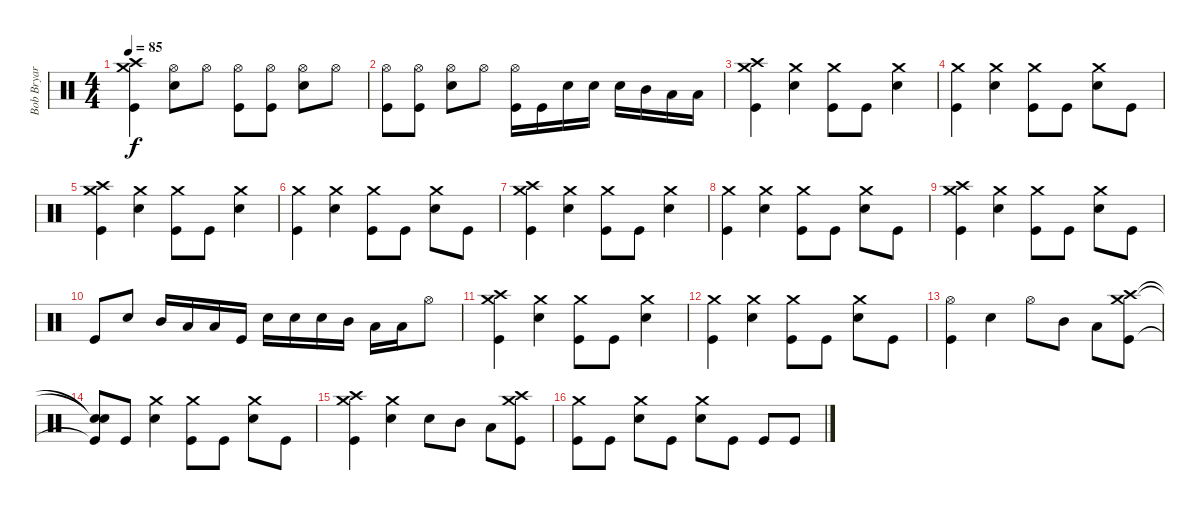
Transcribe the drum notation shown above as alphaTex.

\track ("Bob Bryar (Drums)" "Bob Bryar ") {instrument percussion}
\staff {score}
\articulation defaults
\ts (4 4)
\tempo 85
\clef neutral
\ks c
("Crash high (hit)" "Crash medium (hit)" "Kick (hit)").4{dy f} ("Hi-Hat (open)" "Electric Snare (hit)").8 "Hi-Hat (open)".8 ("Hi-Hat (open)" "Kick (hit)").8 ("Hi-Hat (open)" "Kick (hit)").8 ("Hi-Hat (open)" "Electric Snare (hit)").8 "Hi-Hat (open)".8 |
("Hi-Hat (open)" "Kick (hit)").8 ("Hi-Hat (open)" "Kick (hit)").8 ("Hi-Hat (open)" "Electric Snare (hit)").8 "Hi-Hat (open)".8 ("Hi-Hat (open)" "Kick (hit)").16 "Kick (hit)".16 "Electric Snare (hit)".16 "Electric Snare (hit)".16 "Electric Snare (hit)".16 "Mid Tom (hit)".16 "Low Floor Tom (hit)".16 "Low Floor Tom (hit)".16 |
("Crash high (hit)" "Crash medium (hit)" "Kick (hit)").4 ("Crash medium (hit)" "Electric Snare (hit)").4 ("Crash medium (hit)" "Kick (hit)").8 "Kick (hit)".8 ("Crash medium (hit)" "Electric Snare (hit)").4 |
("Crash medium (hit)" "Kick (hit)").4 ("Crash medium (hit)" "Electric Snare (hit)").4 ("Crash medium (hit)" "Kick (hit)").8 "Kick (hit)".8 ("Crash medium (hit)" "Electric Snare (hit)").8 "Kick (hit)".8 |
("Crash high (hit)" "Crash medium (hit)" "Kick (hit)").4 ("Crash medium (hit)" "Electric Snare (hit)").4 ("Crash medium (hit)" "Kick (hit)").8 "Kick (hit)".8 ("Crash medium (hit)" "Electric Snare (hit)").4 |
("Crash medium (hit)" "Kick (hit)").4 ("Crash medium (hit)" "Electric Snare (hit)").4 ("Crash medium (hit)" "Kick (hit)").8 "Kick (hit)".8 ("Crash medium (hit)" "Electric Snare (hit)").8 "Kick (hit)".8 |
("Crash high (hit)" "Crash medium (hit)" "Kick (hit)").4 ("Crash medium (hit)" "Electric Snare (hit)").4 ("Crash medium (hit)" "Kick (hit)").8 "Kick (hit)".8 ("Crash medium (hit)" "Electric Snare (hit)").4 |
("Crash medium (hit)" "Kick (hit)").4 ("Crash medium (hit)" "Electric Snare (hit)").4 ("Crash medium (hit)" "Kick (hit)").8 "Kick (hit)".8 ("Crash medium (hit)" "Electric Snare (hit)").8 "Kick (hit)".8 |
("Crash high (hit)" "Crash medium (hit)" "Kick (hit)").4 ("Crash medium (hit)" "Electric Snare (hit)").4 ("Crash medium (hit)" "Kick (hit)").8 "Kick (hit)".8 ("Crash medium (hit)" "Electric Snare (hit)").8 "Kick (hit)".8 |
"Kick (hit)".8 "Electric Snare (hit)".8 "Mid Tom (hit)".16 "Low Floor Tom (hit)".16 "Low Floor Tom (hit)".16 "Kick (hit)".16 "Electric Snare (hit)".16 "Electric Snare (hit)".16 "Electric Snare (hit)".16 "Mid Tom (hit)".16 "Low Floor Tom (hit)".16 "Low Floor Tom (hit)".16 "Hi-Hat (open)".8 |
("Crash high (hit)" "Crash medium (hit)" "Kick (hit)").4 ("Crash medium (hit)" "Electric Snare (hit)").4 ("Crash medium (hit)" "Kick (hit)").8 "Kick (hit)".8 ("Crash medium (hit)" "Electric Snare (hit)").4 |
("Crash medium (hit)" "Kick (hit)").4 ("Crash medium (hit)" "Electric Snare (hit)").4 ("Crash medium (hit)" "Kick (hit)").8 "Kick (hit)".8 ("Crash medium (hit)" "Electric Snare (hit)").8 "Kick (hit)".8 |
("Hi-Hat (open)" "Kick (hit)").4 "Electric Snare (hit)".4 "Hi-Hat (open)".8 "Mid Tom (hit)".8 "Low Floor Tom (hit)".8 ("Crash high (hit)" "Crash medium (hit)" "Kick (hit)").8 |
("Snare (hit)"{t} "Snare (hit)"{t} "Kick (hit)"{t}).8 "Kick (hit)".8 ("Crash medium (hit)" "Electric Snare (hit)").4 ("Crash medium (hit)" "Kick (hit)").8 "Kick (hit)".8 ("Crash medium (hit)" "Electric Snare (hit)").8 "Kick (hit)".8 |
("Crash high (hit)" "Crash medium (hit)" "Kick (hit)").4 ("Crash medium (hit)" "Electric Snare (hit)").4 "Electric Snare (hit)".8 "Mid Tom (hit)".8 "Low Floor Tom (hit)".8 ("Crash high (hit)" "Crash medium (hit)" "Kick (hit)").8 |
("Crash medium (hit)" "Kick (hit)").8 "Kick (hit)".8 ("Crash medium (hit)" "Electric Snare (hit)").8 "Kick (hit)".8 ("Crash medium (hit)" "Electric Snare (hit)").8 "Kick (hit)".8 "Kick (hit)".8 "Kick (hit)".8
